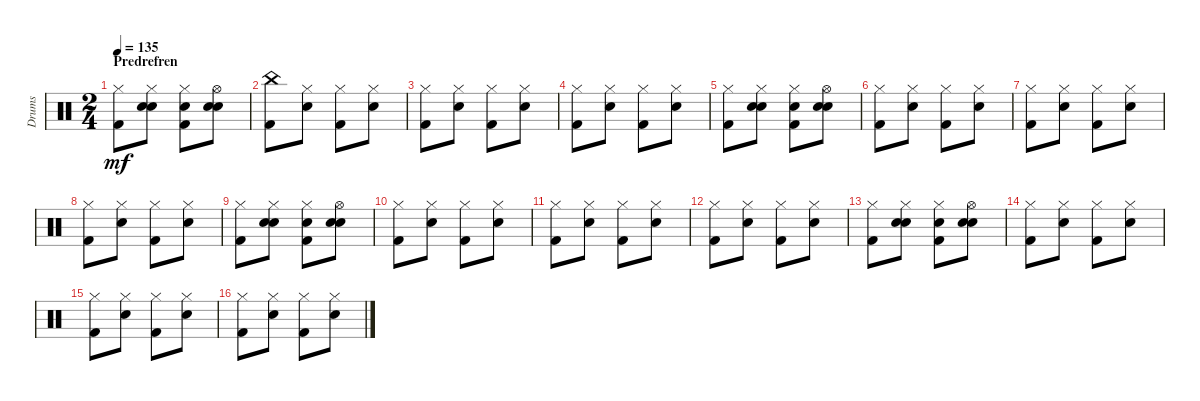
\track ("Drums" "Drums") {instrument percussion}
\staff {score}
\articulation defaults
\ts (2 4)
\section ("" "Predrefren")
\tempo 135
\clef neutral
\ks c
("Hi-Hat (closed)" "Kick (hit) 2").8{dy mf} ("Hi-Hat (closed)" "Electric Snare (hit)" "Hand Clap (hit)").8 ("Hi-Hat (closed)" "Hand Clap (hit)" "Kick (hit) 2").8 ("Hi-Hat (open)" "Electric Snare (hit)" "Hand Clap (hit)").8 |
("China (hit)" "Kick (hit) 2").8 ("Hi-Hat (closed)" "Electric Snare (hit)").8 ("Hi-Hat (closed)" "Kick (hit) 2").8 ("Hi-Hat (closed)" "Electric Snare (hit)").8 |
("Hi-Hat (closed)" "Kick (hit) 2").8 ("Hi-Hat (closed)" "Electric Snare (hit)").8 ("Hi-Hat (closed)" "Kick (hit) 2").8 ("Hi-Hat (closed)" "Electric Snare (hit)").8 |
("Hi-Hat (closed)" "Kick (hit) 2").8 ("Hi-Hat (closed)" "Electric Snare (hit)").8 ("Hi-Hat (closed)" "Kick (hit) 2").8 ("Hi-Hat (closed)" "Electric Snare (hit)").8 |
("Hi-Hat (closed)" "Kick (hit) 2").8 ("Hi-Hat (closed)" "Electric Snare (hit)" "Hand Clap (hit)").8 ("Hi-Hat (closed)" "Hand Clap (hit)" "Kick (hit) 2").8 ("Hi-Hat (open)" "Electric Snare (hit)" "Hand Clap (hit)").8 |
("Hi-Hat (closed)" "Kick (hit) 2").8 ("Hi-Hat (closed)" "Electric Snare (hit)").8 ("Hi-Hat (closed)" "Kick (hit) 2").8 ("Hi-Hat (closed)" "Electric Snare (hit)").8 |
("Hi-Hat (closed)" "Kick (hit) 2").8 ("Hi-Hat (closed)" "Electric Snare (hit)").8 ("Hi-Hat (closed)" "Kick (hit) 2").8 ("Hi-Hat (closed)" "Electric Snare (hit)").8 |
("Hi-Hat (closed)" "Kick (hit) 2").8 ("Hi-Hat (closed)" "Electric Snare (hit)").8 ("Hi-Hat (closed)" "Kick (hit) 2").8 ("Hi-Hat (closed)" "Electric Snare (hit)").8 |
("Hi-Hat (closed)" "Kick (hit) 2").8 ("Hi-Hat (closed)" "Electric Snare (hit)" "Hand Clap (hit)").8 ("Hi-Hat (closed)" "Hand Clap (hit)" "Kick (hit) 2").8 ("Hi-Hat (open)" "Electric Snare (hit)" "Hand Clap (hit)").8 |
("Hi-Hat (closed)" "Kick (hit) 2").8 ("Hi-Hat (closed)" "Electric Snare (hit)").8 ("Hi-Hat (closed)" "Kick (hit) 2").8 ("Hi-Hat (closed)" "Electric Snare (hit)").8 |
("Hi-Hat (closed)" "Kick (hit) 2").8 ("Hi-Hat (closed)" "Electric Snare (hit)").8 ("Hi-Hat (closed)" "Kick (hit) 2").8 ("Hi-Hat (closed)" "Electric Snare (hit)").8 |
("Hi-Hat (closed)" "Kick (hit) 2").8 ("Hi-Hat (closed)" "Electric Snare (hit)").8 ("Hi-Hat (closed)" "Kick (hit) 2").8 ("Hi-Hat (closed)" "Electric Snare (hit)").8 |
("Hi-Hat (closed)" "Kick (hit) 2").8 ("Hi-Hat (closed)" "Electric Snare (hit)" "Hand Clap (hit)").8 ("Hi-Hat (closed)" "Hand Clap (hit)" "Kick (hit) 2").8 ("Hi-Hat (open)" "Electric Snare (hit)" "Hand Clap (hit)").8 |
("Hi-Hat (closed)" "Kick (hit) 2").8 ("Hi-Hat (closed)" "Electric Snare (hit)").8 ("Hi-Hat (closed)" "Kick (hit) 2").8 ("Hi-Hat (closed)" "Electric Snare (hit)").8 |
("Hi-Hat (closed)" "Kick (hit) 2").8 ("Hi-Hat (closed)" "Electric Snare (hit)").8 ("Hi-Hat (closed)" "Kick (hit) 2").8 ("Hi-Hat (closed)" "Electric Snare (hit)").8 |
("Hi-Hat (closed)" "Kick (hit) 2").8 ("Hi-Hat (closed)" "Electric Snare (hit)").8 ("Hi-Hat (closed)" "Kick (hit) 2").8 ("Hi-Hat (closed)" "Electric Snare (hit)").8
